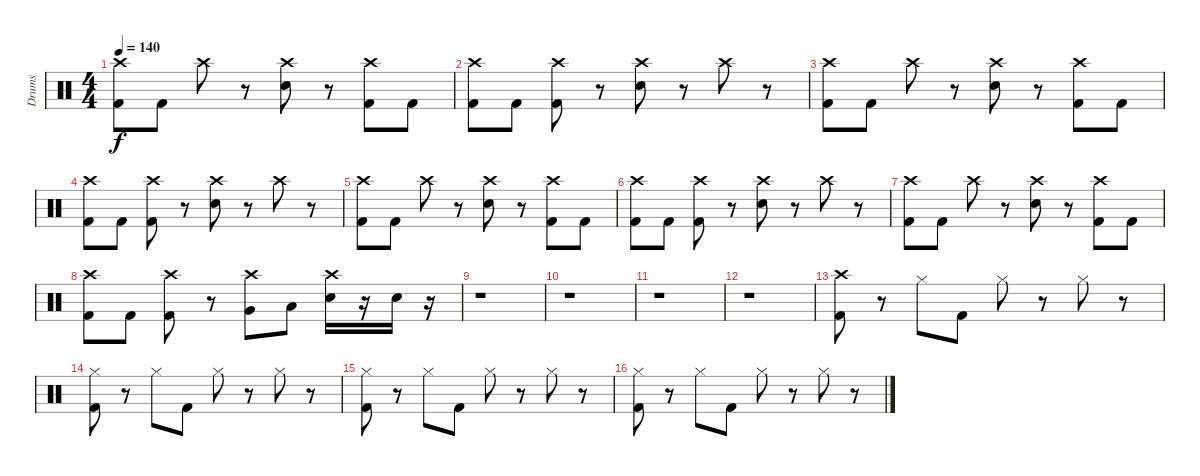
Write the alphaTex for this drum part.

\track ("Drums" "Drums") {instrument percussion}
\staff {score}
\articulation defaults
\ts (4 4)
\tempo 140
\clef neutral
\ks c
("Crash high (hit)" "Kick (hit) 2").8{dy f} "Kick (hit) 2".8 "Crash high (hit)".8 r.8 ("Crash high (hit)" "Electric Snare (hit)").8 r.8 ("Crash high (hit)" "Kick (hit) 2").8 "Kick (hit) 2".8 |
("Crash high (hit)" "Kick (hit) 2").8 "Kick (hit) 2".8 ("Crash high (hit)" "Kick (hit) 2").8 r.8 ("Crash high (hit)" "Electric Snare (hit)").8 r.8 "Crash high (hit)".8 r.8 |
("Crash high (hit)" "Kick (hit) 2").8 "Kick (hit) 2".8 "Crash high (hit)".8 r.8 ("Crash high (hit)" "Electric Snare (hit)").8 r.8 ("Crash high (hit)" "Kick (hit) 2").8 "Kick (hit) 2".8 |
("Crash high (hit)" "Kick (hit) 2").8 "Kick (hit) 2".8 ("Crash high (hit)" "Kick (hit) 2").8 r.8 ("Crash high (hit)" "Electric Snare (hit)").8 r.8 "Crash high (hit)".8 r.8 |
("Crash high (hit)" "Kick (hit) 2").8 "Kick (hit) 2".8 "Crash high (hit)".8 r.8 ("Crash high (hit)" "Electric Snare (hit)").8 r.8 ("Crash high (hit)" "Kick (hit) 2").8 "Kick (hit) 2".8 |
("Crash high (hit)" "Kick (hit) 2").8 "Kick (hit) 2".8 ("Crash high (hit)" "Kick (hit) 2").8 r.8 ("Crash high (hit)" "Electric Snare (hit)").8 r.8 "Crash high (hit)".8 r.8 |
("Crash high (hit)" "Kick (hit) 2").8 "Kick (hit) 2".8 "Crash high (hit)".8 r.8 ("Crash high (hit)" "Electric Snare (hit)").8 r.8 ("Crash high (hit)" "Kick (hit) 2").8 "Kick (hit) 2".8 |
("Crash high (hit)" "Kick (hit) 2").8 "Kick (hit) 2".8 ("Crash high (hit)" "Kick (hit) 2").8 r.8 ("Crash high (hit)" "Very Low Tom (hit)").8 "Low Floor Tom (hit)".8 ("Crash high (hit)" "Electric Snare (hit)").16 r.16 "Electric Snare (hit)".16 r.16 |
r.1 |
r.1 |
r.1 |
r.1 |
("Crash high (hit)" "Kick (hit) 2").8 r.8 "Hi-Hat (closed)".8 "Kick (hit) 2".8 "Hi-Hat (closed)".8 r.8 "Hi-Hat (closed)".8 r.8 |
("Hi-Hat (closed)" "Kick (hit) 2").8 r.8 "Hi-Hat (closed)".8 "Kick (hit) 2".8 "Hi-Hat (closed)".8 r.8 "Hi-Hat (closed)".8 r.8 |
("Hi-Hat (closed)" "Kick (hit) 2").8 r.8 "Hi-Hat (closed)".8 "Kick (hit) 2".8 "Hi-Hat (closed)".8 r.8 "Hi-Hat (closed)".8 r.8 |
("Hi-Hat (closed)" "Kick (hit) 2").8 r.8 "Hi-Hat (closed)".8 "Kick (hit) 2".8 "Hi-Hat (closed)".8 r.8 "Hi-Hat (closed)".8 r.8
